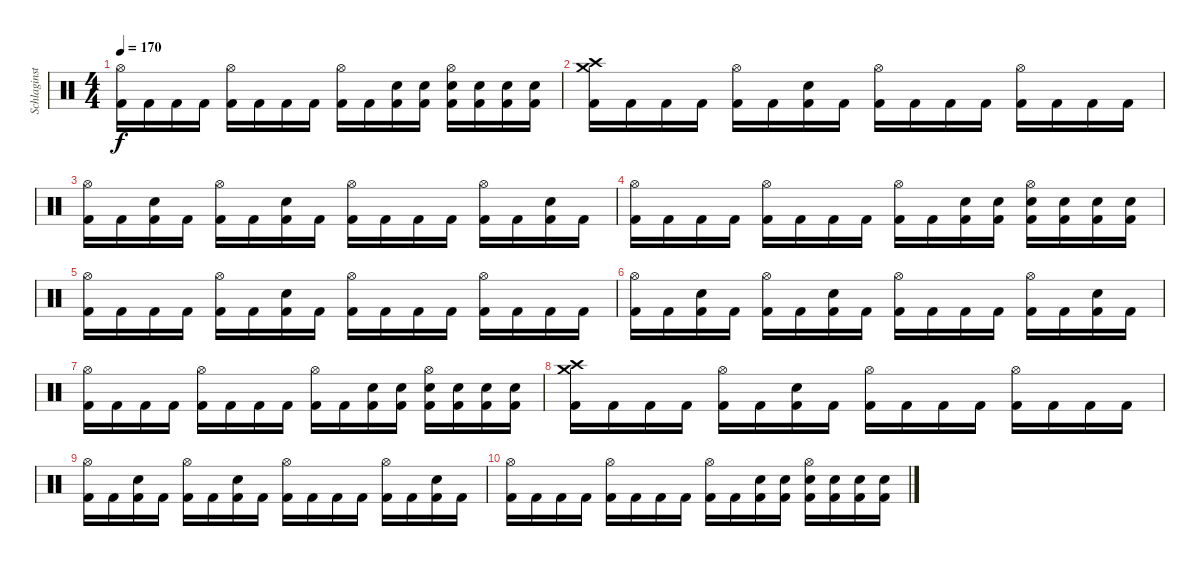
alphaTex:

\track ("Schlaginstrumente - Auswahl" "Schlaginst") {instrument percussion}
\staff {score}
\articulation defaults
\ts (4 4)
\tempo 170
\clef neutral
\ks c
("Hi-Hat (open)" "Kick (hit) 2").16{dy f} "Kick (hit) 2".16 "Kick (hit) 2".16 "Kick (hit) 2".16 ("Hi-Hat (open)" "Kick (hit) 2").16 "Kick (hit) 2".16 "Kick (hit) 2".16 "Kick (hit) 2".16 ("Hi-Hat (open)" "Kick (hit) 2").16 "Kick (hit) 2".16 ("Snare (hit) 2" "Kick (hit) 2").16 ("Snare (hit) 2" "Kick (hit) 2").16 ("Hi-Hat (open)" "Snare (hit) 2" "Kick (hit) 2").16 ("Snare (hit) 2" "Kick (hit) 2").16 ("Snare (hit) 2" "Kick (hit) 2").16 ("Snare (hit) 2" "Kick (hit) 2").16 |
("Crash medium (hit)" "Crash high (hit)" "Kick (hit) 2").16 "Kick (hit) 2".16 "Kick (hit) 2".16 "Kick (hit) 2".16 ("Hi-Hat (open)" "Kick (hit) 2").16 "Kick (hit) 2".16 ("Snare (hit) 2" "Kick (hit) 2").16 "Kick (hit) 2".16 ("Hi-Hat (open)" "Kick (hit) 2").16 "Kick (hit) 2".16 "Kick (hit) 2".16 "Kick (hit) 2".16 ("Hi-Hat (open)" "Kick (hit) 2").16 "Kick (hit) 2".16 "Kick (hit) 2".16 "Kick (hit) 2".16 |
("Hi-Hat (open)" "Kick (hit) 2").16 "Kick (hit) 2".16 ("Snare (hit) 2" "Kick (hit) 2").16 "Kick (hit) 2".16 ("Hi-Hat (open)" "Kick (hit) 2").16 "Kick (hit) 2".16 ("Snare (hit) 2" "Kick (hit) 2").16 "Kick (hit) 2".16 ("Hi-Hat (open)" "Kick (hit) 2").16 "Kick (hit) 2".16 "Kick (hit) 2".16 "Kick (hit) 2".16 ("Hi-Hat (open)" "Kick (hit) 2").16 "Kick (hit) 2".16 ("Snare (hit) 2" "Kick (hit) 2").16 "Kick (hit) 2".16 |
("Hi-Hat (open)" "Kick (hit) 2").16 "Kick (hit) 2".16 "Kick (hit) 2".16 "Kick (hit) 2".16 ("Hi-Hat (open)" "Kick (hit) 2").16 "Kick (hit) 2".16 "Kick (hit) 2".16 "Kick (hit) 2".16 ("Hi-Hat (open)" "Kick (hit) 2").16 "Kick (hit) 2".16 ("Snare (hit) 2" "Kick (hit) 2").16 ("Snare (hit) 2" "Kick (hit) 2").16 ("Hi-Hat (open)" "Snare (hit) 2" "Kick (hit) 2").16 ("Snare (hit) 2" "Kick (hit) 2").16 ("Snare (hit) 2" "Kick (hit) 2").16 ("Snare (hit) 2" "Kick (hit) 2").16 |
("Hi-Hat (open)" "Kick (hit) 2").16 "Kick (hit) 2".16 "Kick (hit) 2".16 "Kick (hit) 2".16 ("Hi-Hat (open)" "Kick (hit) 2").16 "Kick (hit) 2".16 ("Snare (hit) 2" "Kick (hit) 2").16 "Kick (hit) 2".16 ("Hi-Hat (open)" "Kick (hit) 2").16 "Kick (hit) 2".16 "Kick (hit) 2".16 "Kick (hit) 2".16 ("Hi-Hat (open)" "Kick (hit) 2").16 "Kick (hit) 2".16 "Kick (hit) 2".16 "Kick (hit) 2".16 |
("Hi-Hat (open)" "Kick (hit) 2").16 "Kick (hit) 2".16 ("Snare (hit) 2" "Kick (hit) 2").16 "Kick (hit) 2".16 ("Hi-Hat (open)" "Kick (hit) 2").16 "Kick (hit) 2".16 ("Snare (hit) 2" "Kick (hit) 2").16 "Kick (hit) 2".16 ("Hi-Hat (open)" "Kick (hit) 2").16 "Kick (hit) 2".16 "Kick (hit) 2".16 "Kick (hit) 2".16 ("Hi-Hat (open)" "Kick (hit) 2").16 "Kick (hit) 2".16 ("Snare (hit) 2" "Kick (hit) 2").16 "Kick (hit) 2".16 |
("Hi-Hat (open)" "Kick (hit) 2").16 "Kick (hit) 2".16 "Kick (hit) 2".16 "Kick (hit) 2".16 ("Hi-Hat (open)" "Kick (hit) 2").16 "Kick (hit) 2".16 "Kick (hit) 2".16 "Kick (hit) 2".16 ("Hi-Hat (open)" "Kick (hit) 2").16 "Kick (hit) 2".16 ("Snare (hit) 2" "Kick (hit) 2").16 ("Snare (hit) 2" "Kick (hit) 2").16 ("Hi-Hat (open)" "Snare (hit) 2" "Kick (hit) 2").16 ("Snare (hit) 2" "Kick (hit) 2").16 ("Snare (hit) 2" "Kick (hit) 2").16 ("Snare (hit) 2" "Kick (hit) 2").16 |
("Crash medium (hit)" "Crash high (hit)" "Kick (hit) 2").16 "Kick (hit) 2".16 "Kick (hit) 2".16 "Kick (hit) 2".16 ("Hi-Hat (open)" "Kick (hit) 2").16 "Kick (hit) 2".16 ("Snare (hit) 2" "Kick (hit) 2").16 "Kick (hit) 2".16 ("Hi-Hat (open)" "Kick (hit) 2").16 "Kick (hit) 2".16 "Kick (hit) 2".16 "Kick (hit) 2".16 ("Hi-Hat (open)" "Kick (hit) 2").16 "Kick (hit) 2".16 "Kick (hit) 2".16 "Kick (hit) 2".16 |
("Hi-Hat (open)" "Kick (hit) 2").16 "Kick (hit) 2".16 ("Snare (hit) 2" "Kick (hit) 2").16 "Kick (hit) 2".16 ("Hi-Hat (open)" "Kick (hit) 2").16 "Kick (hit) 2".16 ("Snare (hit) 2" "Kick (hit) 2").16 "Kick (hit) 2".16 ("Hi-Hat (open)" "Kick (hit) 2").16 "Kick (hit) 2".16 "Kick (hit) 2".16 "Kick (hit) 2".16 ("Hi-Hat (open)" "Kick (hit) 2").16 "Kick (hit) 2".16 ("Snare (hit) 2" "Kick (hit) 2").16 "Kick (hit) 2".16 |
("Hi-Hat (open)" "Kick (hit) 2").16 "Kick (hit) 2".16 "Kick (hit) 2".16 "Kick (hit) 2".16 ("Hi-Hat (open)" "Kick (hit) 2").16 "Kick (hit) 2".16 "Kick (hit) 2".16 "Kick (hit) 2".16 ("Hi-Hat (open)" "Kick (hit) 2").16 "Kick (hit) 2".16 ("Snare (hit) 2" "Kick (hit) 2").16 ("Snare (hit) 2" "Kick (hit) 2").16 ("Hi-Hat (open)" "Snare (hit) 2" "Kick (hit) 2").16 ("Snare (hit) 2" "Kick (hit) 2").16 ("Snare (hit) 2" "Kick (hit) 2").16 ("Snare (hit) 2" "Kick (hit) 2").16
